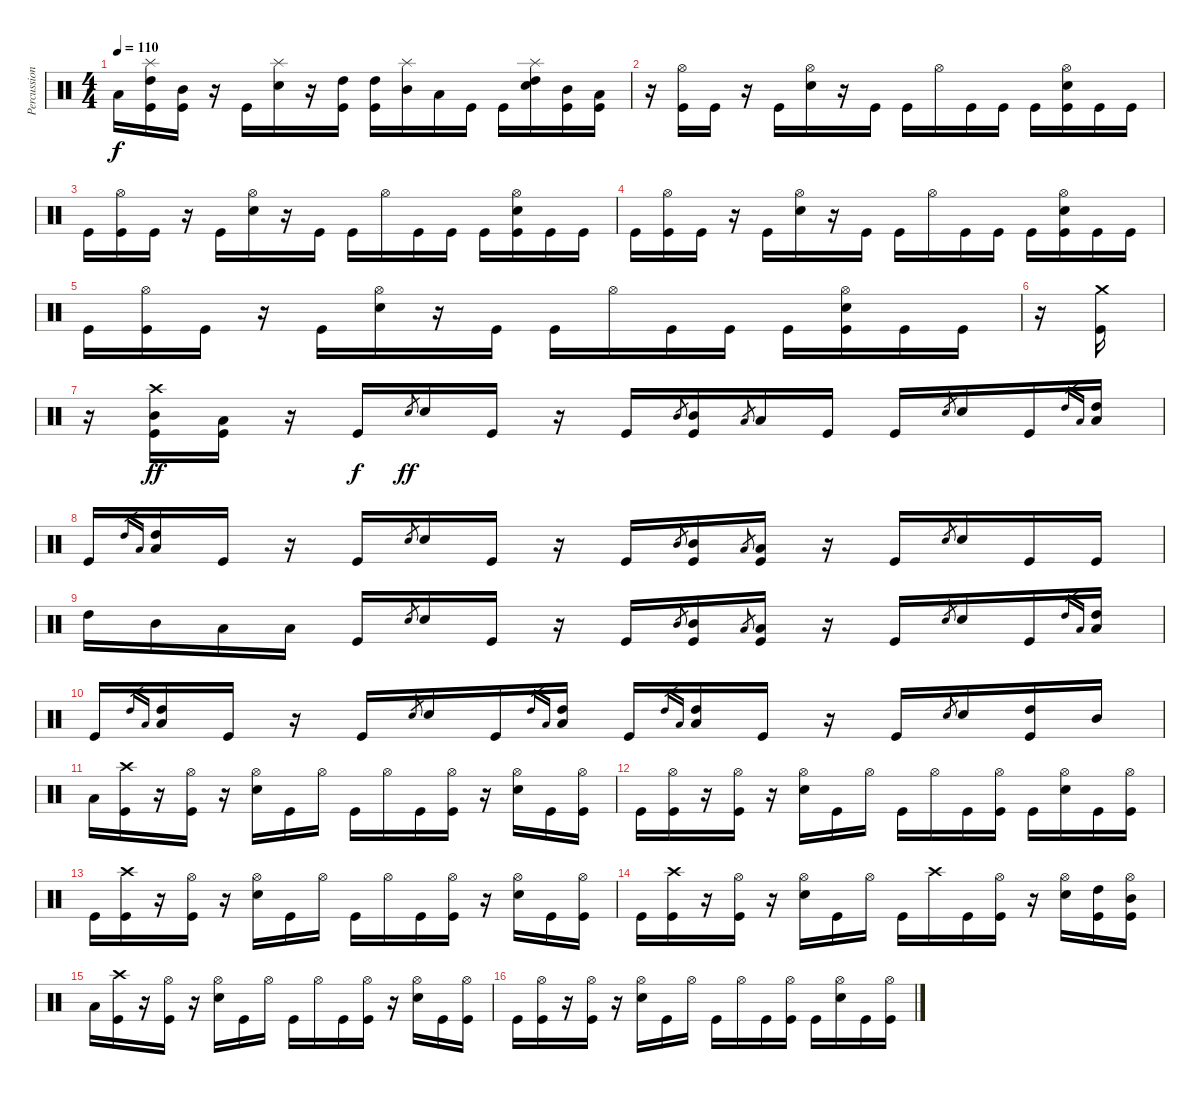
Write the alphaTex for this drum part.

\track ("Percussion" "Percussion") {instrument percussion}
\staff {score}
\articulation defaults
\ts (4 4)
\tempo 110
\clef neutral
\ks c "Low Floor Tom (hit)".16{dy f}
("Splash (hit)" "High Tom (hit)" "Kick (hit)").16 ("Mid Tom (hit)" "Kick (hit)").16 r.16 "Kick (hit)".16 ("Splash (hit)" "Electric Snare (hit)").16 r.16 ("High Tom (hit)" "Kick (hit)").16 ("High Tom (hit)" "Kick (hit)").16 ("Splash (hit)" "Mid Tom (hit)").16 "Low Floor Tom (hit)".16 "Kick (hit)".16 "Kick (hit)".16 ("Splash (hit)" "High Tom (hit)" "Electric Snare (hit)").16 ("Mid Tom (hit)" "Kick (hit)").16 ("Low Tom (hit)" "Kick (hit)").16 |
r.16 ("Hi-Hat (open)" "Kick (hit)").16 "Kick (hit)".16 r.16 "Kick (hit)".16 ("Hi-Hat (open)" "Electric Snare (hit)").16 r.16 "Kick (hit)".16 "Kick (hit)".16 "Hi-Hat (open)".16 "Kick (hit)".16 "Kick (hit)".16 "Kick (hit)".16 ("Hi-Hat (open)" "Electric Snare (hit)" "Kick (hit)").16 "Kick (hit)".16 "Kick (hit)".16 |
"Kick (hit)".16 ("Hi-Hat (open)" "Kick (hit)").16 "Kick (hit)".16 r.16 "Kick (hit)".16 ("Hi-Hat (open)" "Electric Snare (hit)").16 r.16 "Kick (hit)".16 "Kick (hit)".16 "Hi-Hat (open)".16 "Kick (hit)".16 "Kick (hit)".16 "Kick (hit)".16 ("Hi-Hat (open)" "Electric Snare (hit)" "Kick (hit)").16 "Kick (hit)".16 "Kick (hit)".16 |
"Kick (hit)".16 ("Hi-Hat (open)" "Kick (hit)").16 "Kick (hit)".16 r.16 "Kick (hit)".16 ("Hi-Hat (open)" "Electric Snare (hit)").16 r.16 "Kick (hit)".16 "Kick (hit)".16 "Hi-Hat (open)".16 "Kick (hit)".16 "Kick (hit)".16 "Kick (hit)".16 ("Hi-Hat (open)" "Electric Snare (hit)" "Kick (hit)").16 "Kick (hit)".16 "Kick (hit)".16 |
"Kick (hit)".16 ("Hi-Hat (open)" "Kick (hit)").16 "Kick (hit)".16 r.16 "Kick (hit)".16 ("Hi-Hat (open)" "Electric Snare (hit)").16 r.16 "Kick (hit)".16 "Kick (hit)".16 "Hi-Hat (open)".16 "Kick (hit)".16 "Kick (hit)".16 "Kick (hit)".16 ("Hi-Hat (open)" "Electric Snare (hit)" "Kick (hit)").16 "Kick (hit)".16 "Kick (hit)".16 |
r.16 ("Crash medium (hit)" "Kick (hit)").16 |
r.16 ("Crash high (hit)" "Mid Tom (hit)" "Kick (hit)").16{dy ff} ("Low Floor Tom (hit)" "Kick (hit)").16 r.16 "Kick (hit)".16{dy f} "Electric Snare (hit)".8{gr dy ff} "Electric Snare (hit)".16 "Kick (hit)".16 r.16 "Kick (hit)".16 "Mid Tom (hit)".8{gr} ("Mid Tom (hit)" "Kick (hit)").16 "Low Floor Tom (hit)".8{gr} "Low Floor Tom (hit)".16 "Kick (hit)".16 "Kick (hit)".16 "Electric Snare (hit)".8{gr} "Electric Snare (hit)".16 "Kick (hit)".16 "High Tom (hit)".16{gr} "Low Floor Tom (hit)".16{gr} ("High Tom (hit)" "Low Floor Tom (hit)").16 |
"Kick (hit)".16 "High Tom (hit)".16{gr} "Low Floor Tom (hit)".16{gr} ("High Tom (hit)" "Low Floor Tom (hit)").16 "Kick (hit)".16 r.16 "Kick (hit)".16 "Electric Snare (hit)".8{gr} "Electric Snare (hit)".16 "Kick (hit)".16 r.16 "Kick (hit)".16 "Mid Tom (hit)".8{gr} ("Mid Tom (hit)" "Kick (hit)").16 "Low Floor Tom (hit)".8{gr} ("Low Floor Tom (hit)" "Kick (hit)").16 r.16 "Kick (hit)".16 "Electric Snare (hit)".8{gr} "Electric Snare (hit)".16 "Kick (hit)".16 "Kick (hit)".16 |
"High Tom (hit)".16 "Mid Tom (hit)".16 "Low Tom (hit)".16 "Low Floor Tom (hit)".16 "Kick (hit)".16 "Electric Snare (hit)".8{gr} "Electric Snare (hit)".16 "Kick (hit)".16 r.16 "Kick (hit)".16 "Mid Tom (hit)".8{gr} ("Mid Tom (hit)" "Kick (hit)").16 "Low Floor Tom (hit)".8{gr} ("Low Floor Tom (hit)" "Kick (hit)").16 r.16 "Kick (hit)".16 "Electric Snare (hit)".8{gr} "Electric Snare (hit)".16 "Kick (hit)".16 "High Tom (hit)".16{gr} "Low Floor Tom (hit)".16{gr} ("High Tom (hit)" "Low Floor Tom (hit)").16 |
"Kick (hit)".16 "High Tom (hit)".16{gr} "Low Floor Tom (hit)".16{gr} ("High Tom (hit)" "Low Floor Tom (hit)").16 "Kick (hit)".16 r.16 "Kick (hit)".16 "Electric Snare (hit)".8{gr} "Electric Snare (hit)".16 "Kick (hit)".16 "High Tom (hit)".16{gr} "Low Floor Tom (hit)".16{gr} ("High Tom (hit)" "Low Floor Tom (hit)").16 "Kick (hit)".16 "High Tom (hit)".16{gr} "Low Floor Tom (hit)".16{gr} ("High Tom (hit)" "Low Floor Tom (hit)").16 "Kick (hit)".16 r.16 "Kick (hit)".16 "Electric Snare (hit)".8{gr} "Electric Snare (hit)".16 ("High Tom (hit)" "Kick (hit)").16 "Mid Tom (hit)".16 |
"Low Tom (hit)".16 ("Crash high (hit)" "Kick (hit)").16 r.16 ("Hi-Hat (open)" "Kick (hit)").16 r.16 ("Hi-Hat (open)" "Electric Snare (hit)").16 "Kick (hit)".16 "Hi-Hat (open)".16 "Kick (hit)".16 "Hi-Hat (open)".16 "Kick (hit)".16 ("Hi-Hat (open)" "Kick (hit)").16 r.16 ("Hi-Hat (open)" "Electric Snare (hit)").16 "Kick (hit)".16 ("Hi-Hat (open)" "Kick (hit)").16 |
"Kick (hit)".16 ("Hi-Hat (open)" "Kick (hit)").16 r.16 ("Hi-Hat (open)" "Kick (hit)").16 r.16 ("Hi-Hat (open)" "Electric Snare (hit)").16 "Kick (hit)".16 "Hi-Hat (open)".16 "Kick (hit)".16 "Hi-Hat (open)".16 "Kick (hit)".16 ("Hi-Hat (open)" "Kick (hit)").16 "Kick (hit)".16 ("Hi-Hat (open)" "Electric Snare (hit)").16 "Kick (hit)".16 ("Hi-Hat (open)" "Kick (hit)").16 |
"Kick (hit)".16 ("Crash high (hit)" "Kick (hit)").16 r.16 ("Hi-Hat (open)" "Kick (hit)").16 r.16 ("Hi-Hat (open)" "Electric Snare (hit)").16 "Kick (hit)".16 "Hi-Hat (open)".16 "Kick (hit)".16 "Hi-Hat (open)".16 "Kick (hit)".16 ("Hi-Hat (open)" "Kick (hit)").16 r.16 ("Hi-Hat (open)" "Electric Snare (hit)").16 "Kick (hit)".16 ("Hi-Hat (open)" "Kick (hit)").16 |
"Kick (hit)".16 ("Crash high (hit)" "Kick (hit)").16 r.16 ("Hi-Hat (open)" "Kick (hit)").16 r.16 ("Hi-Hat (open)" "Electric Snare (hit)").16 "Kick (hit)".16 "Hi-Hat (open)".16 "Kick (hit)".16 "Crash high (hit)".16 "Kick (hit)".16 ("Hi-Hat (open)" "Kick (hit)").16 r.16 ("Hi-Hat (open)" "Electric Snare (hit)").16 ("High Tom (hit)" "Kick (hit)").16 ("Hi-Hat (open)" "Mid Tom (hit)" "Kick (hit)").16 |
"Low Tom (hit)".16 ("Crash high (hit)" "Kick (hit)").16 r.16 ("Hi-Hat (open)" "Kick (hit)").16 r.16 ("Hi-Hat (open)" "Electric Snare (hit)").16 "Kick (hit)".16 "Hi-Hat (open)".16 "Kick (hit)".16 "Hi-Hat (open)".16 "Kick (hit)".16 ("Hi-Hat (open)" "Kick (hit)").16 r.16 ("Hi-Hat (open)" "Electric Snare (hit)").16 "Kick (hit)".16 ("Hi-Hat (open)" "Kick (hit)").16 |
"Kick (hit)".16 ("Hi-Hat (open)" "Kick (hit)").16 r.16 ("Hi-Hat (open)" "Kick (hit)").16 r.16 ("Hi-Hat (open)" "Electric Snare (hit)").16 "Kick (hit)".16 "Hi-Hat (open)".16 "Kick (hit)".16 "Hi-Hat (open)".16 "Kick (hit)".16 ("Hi-Hat (open)" "Kick (hit)").16 "Kick (hit)".16 ("Hi-Hat (open)" "Electric Snare (hit)").16 "Kick (hit)".16 ("Hi-Hat (open)" "Kick (hit)").16
